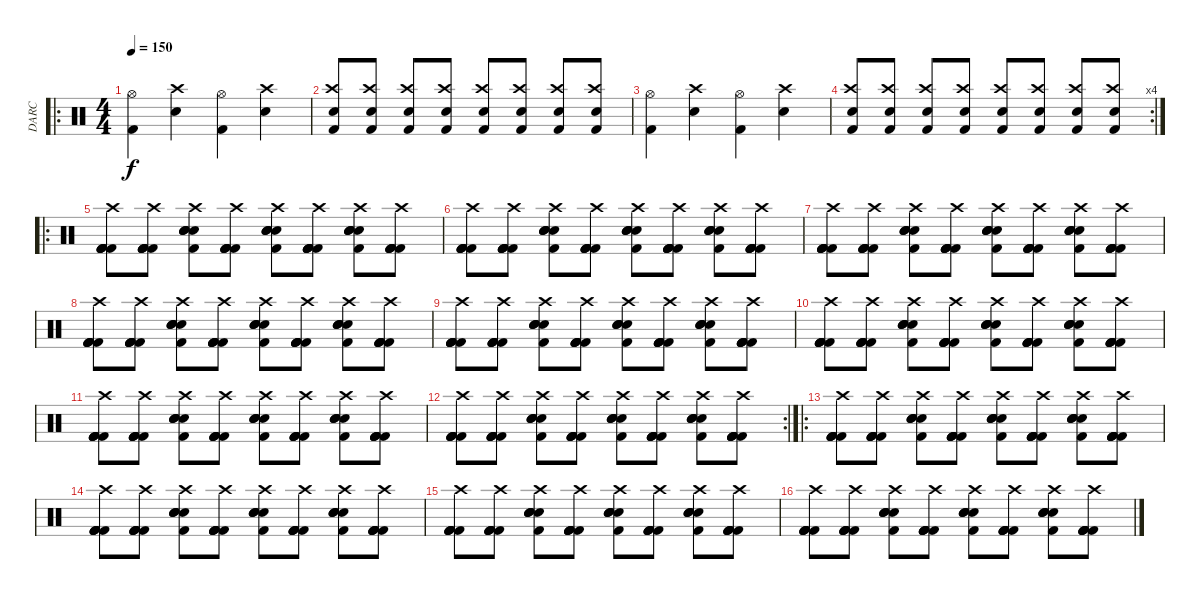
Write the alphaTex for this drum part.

\track ("DARC" "DARC") {instrument percussion}
\staff {score}
\articulation defaults
\ro
\ts (4 4)
\tempo 150
\clef neutral
\ks c
("Hi-Hat (open)" "Kick (hit) 2").4{dy f} ("Crash high (hit)" "Electric Snare (hit)").4 ("Hi-Hat (open)" "Kick (hit) 2").4 ("Crash high (hit)" "Electric Snare (hit)").4 |
("Crash high (hit)" "Kick (hit) 2" "Electric Snare (hit)").8 ("Crash high (hit)" "Kick (hit) 2" "Electric Snare (hit)").8 ("Crash high (hit)" "Kick (hit) 2" "Electric Snare (hit)").8 ("Crash high (hit)" "Kick (hit) 2" "Electric Snare (hit)").8 ("Crash high (hit)" "Kick (hit) 2" "Electric Snare (hit)").8 ("Crash high (hit)" "Kick (hit) 2" "Electric Snare (hit)").8 ("Crash high (hit)" "Kick (hit) 2" "Electric Snare (hit)").8 ("Crash high (hit)" "Kick (hit) 2" "Electric Snare (hit)").8 |
("Hi-Hat (open)" "Kick (hit) 2").4 ("Crash high (hit)" "Electric Snare (hit)").4 ("Hi-Hat (open)" "Kick (hit) 2").4 ("Crash high (hit)" "Electric Snare (hit)").4 |
\rc 4
("Crash high (hit)" "Kick (hit) 2" "Electric Snare (hit)").8 ("Crash high (hit)" "Kick (hit) 2" "Electric Snare (hit)").8 ("Crash high (hit)" "Kick (hit) 2" "Electric Snare (hit)").8 ("Crash high (hit)" "Kick (hit) 2" "Electric Snare (hit)").8 ("Crash high (hit)" "Kick (hit) 2" "Electric Snare (hit)").8 ("Crash high (hit)" "Kick (hit) 2" "Electric Snare (hit)").8 ("Crash high (hit)" "Kick (hit) 2" "Electric Snare (hit)").8 ("Crash high (hit)" "Kick (hit) 2" "Electric Snare (hit)").8 |
\ro
("Kick (hit) 2" "Kick (hit) 2" "Kick (hit) 2" "Kick (hit) 2" "Crash high (hit)" "Kick (hit) 2").8 ("Kick (hit) 2" "Kick (hit) 2" "Kick (hit) 2" "Kick (hit) 2" "Crash high (hit)" "Kick (hit) 2").8 ("Kick (hit) 2" "Electric Snare (hit)" "Electric Snare (hit)" "Electric Snare (hit)" "Crash high (hit)" "Electric Snare (hit)").8 ("Kick (hit) 2" "Kick (hit) 2" "Kick (hit) 2" "Kick (hit) 2" "Crash high (hit)" "Kick (hit) 2").8 ("Kick (hit) 2" "Electric Snare (hit)" "Electric Snare (hit)" "Electric Snare (hit)" "Crash high (hit)" "Electric Snare (hit)").8 ("Kick (hit) 2" "Kick (hit) 2" "Kick (hit) 2" "Kick (hit) 2" "Crash high (hit)" "Kick (hit) 2").8 ("Kick (hit) 2" "Electric Snare (hit)" "Electric Snare (hit)" "Electric Snare (hit)" "Crash high (hit)" "Electric Snare (hit)").8 ("Kick (hit) 2" "Kick (hit) 2" "Kick (hit) 2" "Kick (hit) 2" "Crash high (hit)" "Kick (hit) 2").8 |
("Kick (hit) 2" "Kick (hit) 2" "Kick (hit) 2" "Kick (hit) 2" "Crash high (hit)" "Kick (hit) 2").8 ("Kick (hit) 2" "Kick (hit) 2" "Kick (hit) 2" "Kick (hit) 2" "Crash high (hit)" "Kick (hit) 2").8 ("Kick (hit) 2" "Electric Snare (hit)" "Electric Snare (hit)" "Electric Snare (hit)" "Crash high (hit)" "Electric Snare (hit)").8 ("Kick (hit) 2" "Kick (hit) 2" "Kick (hit) 2" "Kick (hit) 2" "Crash high (hit)" "Kick (hit) 2").8 ("Kick (hit) 2" "Electric Snare (hit)" "Electric Snare (hit)" "Electric Snare (hit)" "Crash high (hit)" "Electric Snare (hit)").8 ("Kick (hit) 2" "Kick (hit) 2" "Kick (hit) 2" "Kick (hit) 2" "Crash high (hit)" "Kick (hit) 2").8 ("Kick (hit) 2" "Electric Snare (hit)" "Electric Snare (hit)" "Electric Snare (hit)" "Crash high (hit)" "Electric Snare (hit)").8 ("Kick (hit) 2" "Kick (hit) 2" "Kick (hit) 2" "Kick (hit) 2" "Crash high (hit)" "Kick (hit) 2").8 |
("Kick (hit) 2" "Kick (hit) 2" "Kick (hit) 2" "Kick (hit) 2" "Crash high (hit)" "Kick (hit) 2").8 ("Kick (hit) 2" "Kick (hit) 2" "Kick (hit) 2" "Kick (hit) 2" "Crash high (hit)" "Kick (hit) 2").8 ("Kick (hit) 2" "Electric Snare (hit)" "Electric Snare (hit)" "Electric Snare (hit)" "Crash high (hit)" "Electric Snare (hit)").8 ("Kick (hit) 2" "Kick (hit) 2" "Kick (hit) 2" "Kick (hit) 2" "Crash high (hit)" "Kick (hit) 2").8 ("Kick (hit) 2" "Electric Snare (hit)" "Electric Snare (hit)" "Electric Snare (hit)" "Crash high (hit)" "Electric Snare (hit)").8 ("Kick (hit) 2" "Kick (hit) 2" "Kick (hit) 2" "Kick (hit) 2" "Crash high (hit)" "Kick (hit) 2").8 ("Kick (hit) 2" "Electric Snare (hit)" "Electric Snare (hit)" "Electric Snare (hit)" "Crash high (hit)" "Electric Snare (hit)").8 ("Kick (hit) 2" "Kick (hit) 2" "Kick (hit) 2" "Kick (hit) 2" "Crash high (hit)" "Kick (hit) 2").8 |
("Kick (hit) 2" "Kick (hit) 2" "Kick (hit) 2" "Kick (hit) 2" "Crash high (hit)" "Kick (hit) 2").8 ("Kick (hit) 2" "Kick (hit) 2" "Kick (hit) 2" "Kick (hit) 2" "Crash high (hit)" "Kick (hit) 2").8 ("Kick (hit) 2" "Electric Snare (hit)" "Electric Snare (hit)" "Electric Snare (hit)" "Crash high (hit)" "Electric Snare (hit)").8 ("Kick (hit) 2" "Kick (hit) 2" "Kick (hit) 2" "Kick (hit) 2" "Crash high (hit)" "Kick (hit) 2").8 ("Kick (hit) 2" "Electric Snare (hit)" "Electric Snare (hit)" "Electric Snare (hit)" "Crash high (hit)" "Electric Snare (hit)").8 ("Kick (hit) 2" "Kick (hit) 2" "Kick (hit) 2" "Kick (hit) 2" "Crash high (hit)" "Kick (hit) 2").8 ("Kick (hit) 2" "Electric Snare (hit)" "Electric Snare (hit)" "Electric Snare (hit)" "Crash high (hit)" "Electric Snare (hit)").8 ("Kick (hit) 2" "Kick (hit) 2" "Kick (hit) 2" "Kick (hit) 2" "Crash high (hit)" "Kick (hit) 2").8 |
("Kick (hit) 2" "Kick (hit) 2" "Kick (hit) 2" "Kick (hit) 2" "Crash high (hit)" "Kick (hit) 2").8 ("Kick (hit) 2" "Kick (hit) 2" "Kick (hit) 2" "Kick (hit) 2" "Crash high (hit)" "Kick (hit) 2").8 ("Kick (hit) 2" "Electric Snare (hit)" "Electric Snare (hit)" "Electric Snare (hit)" "Crash high (hit)" "Electric Snare (hit)").8 ("Kick (hit) 2" "Kick (hit) 2" "Kick (hit) 2" "Kick (hit) 2" "Crash high (hit)" "Kick (hit) 2").8 ("Kick (hit) 2" "Electric Snare (hit)" "Electric Snare (hit)" "Electric Snare (hit)" "Crash high (hit)" "Electric Snare (hit)").8 ("Kick (hit) 2" "Kick (hit) 2" "Kick (hit) 2" "Kick (hit) 2" "Crash high (hit)" "Kick (hit) 2").8 ("Kick (hit) 2" "Electric Snare (hit)" "Electric Snare (hit)" "Electric Snare (hit)" "Crash high (hit)" "Electric Snare (hit)").8 ("Kick (hit) 2" "Kick (hit) 2" "Kick (hit) 2" "Kick (hit) 2" "Crash high (hit)" "Kick (hit) 2").8 |
("Kick (hit) 2" "Kick (hit) 2" "Kick (hit) 2" "Kick (hit) 2" "Crash high (hit)" "Kick (hit) 2").8 ("Kick (hit) 2" "Kick (hit) 2" "Kick (hit) 2" "Kick (hit) 2" "Crash high (hit)" "Kick (hit) 2").8 ("Kick (hit) 2" "Electric Snare (hit)" "Electric Snare (hit)" "Electric Snare (hit)" "Crash high (hit)" "Electric Snare (hit)").8 ("Kick (hit) 2" "Kick (hit) 2" "Kick (hit) 2" "Kick (hit) 2" "Crash high (hit)" "Kick (hit) 2").8 ("Kick (hit) 2" "Electric Snare (hit)" "Electric Snare (hit)" "Electric Snare (hit)" "Crash high (hit)" "Electric Snare (hit)").8 ("Kick (hit) 2" "Kick (hit) 2" "Kick (hit) 2" "Kick (hit) 2" "Crash high (hit)" "Kick (hit) 2").8 ("Kick (hit) 2" "Electric Snare (hit)" "Electric Snare (hit)" "Electric Snare (hit)" "Crash high (hit)" "Electric Snare (hit)").8 ("Kick (hit) 2" "Kick (hit) 2" "Kick (hit) 2" "Kick (hit) 2" "Crash high (hit)" "Kick (hit) 2").8 |
("Kick (hit) 2" "Kick (hit) 2" "Kick (hit) 2" "Kick (hit) 2" "Crash high (hit)" "Kick (hit) 2").8 ("Kick (hit) 2" "Kick (hit) 2" "Kick (hit) 2" "Kick (hit) 2" "Crash high (hit)" "Kick (hit) 2").8 ("Kick (hit) 2" "Electric Snare (hit)" "Electric Snare (hit)" "Electric Snare (hit)" "Crash high (hit)" "Electric Snare (hit)").8 ("Kick (hit) 2" "Kick (hit) 2" "Kick (hit) 2" "Kick (hit) 2" "Crash high (hit)" "Kick (hit) 2").8 ("Kick (hit) 2" "Electric Snare (hit)" "Electric Snare (hit)" "Electric Snare (hit)" "Crash high (hit)" "Electric Snare (hit)").8 ("Kick (hit) 2" "Kick (hit) 2" "Kick (hit) 2" "Kick (hit) 2" "Crash high (hit)" "Kick (hit) 2").8 ("Kick (hit) 2" "Electric Snare (hit)" "Electric Snare (hit)" "Electric Snare (hit)" "Crash high (hit)" "Electric Snare (hit)").8 ("Kick (hit) 2" "Kick (hit) 2" "Kick (hit) 2" "Kick (hit) 2" "Crash high (hit)" "Kick (hit) 2").8 |
\rc 2
("Kick (hit) 2" "Kick (hit) 2" "Kick (hit) 2" "Kick (hit) 2" "Crash high (hit)" "Kick (hit) 2").8 ("Kick (hit) 2" "Kick (hit) 2" "Kick (hit) 2" "Kick (hit) 2" "Crash high (hit)" "Kick (hit) 2").8 ("Kick (hit) 2" "Electric Snare (hit)" "Electric Snare (hit)" "Electric Snare (hit)" "Crash high (hit)" "Electric Snare (hit)").8 ("Kick (hit) 2" "Kick (hit) 2" "Kick (hit) 2" "Kick (hit) 2" "Crash high (hit)" "Kick (hit) 2").8 ("Kick (hit) 2" "Electric Snare (hit)" "Electric Snare (hit)" "Electric Snare (hit)" "Crash high (hit)" "Electric Snare (hit)").8 ("Kick (hit) 2" "Kick (hit) 2" "Kick (hit) 2" "Kick (hit) 2" "Crash high (hit)" "Kick (hit) 2").8 ("Kick (hit) 2" "Electric Snare (hit)" "Electric Snare (hit)" "Electric Snare (hit)" "Crash high (hit)" "Electric Snare (hit)").8 ("Kick (hit) 2" "Kick (hit) 2" "Kick (hit) 2" "Kick (hit) 2" "Crash high (hit)" "Kick (hit) 2").8 |
\ro
("Kick (hit) 2" "Kick (hit) 2" "Kick (hit) 2" "Kick (hit) 2" "Crash high (hit)" "Kick (hit) 2").8 ("Kick (hit) 2" "Kick (hit) 2" "Kick (hit) 2" "Kick (hit) 2" "Crash high (hit)" "Kick (hit) 2").8 ("Kick (hit) 2" "Electric Snare (hit)" "Electric Snare (hit)" "Electric Snare (hit)" "Crash high (hit)" "Electric Snare (hit)").8 ("Kick (hit) 2" "Kick (hit) 2" "Kick (hit) 2" "Kick (hit) 2" "Crash high (hit)" "Kick (hit) 2").8 ("Kick (hit) 2" "Electric Snare (hit)" "Electric Snare (hit)" "Electric Snare (hit)" "Crash high (hit)" "Electric Snare (hit)").8 ("Kick (hit) 2" "Kick (hit) 2" "Kick (hit) 2" "Kick (hit) 2" "Crash high (hit)" "Kick (hit) 2").8 ("Kick (hit) 2" "Electric Snare (hit)" "Electric Snare (hit)" "Electric Snare (hit)" "Crash high (hit)" "Electric Snare (hit)").8 ("Kick (hit) 2" "Kick (hit) 2" "Kick (hit) 2" "Kick (hit) 2" "Crash high (hit)" "Kick (hit) 2").8 |
("Kick (hit) 2" "Kick (hit) 2" "Kick (hit) 2" "Kick (hit) 2" "Crash high (hit)" "Kick (hit) 2").8 ("Kick (hit) 2" "Kick (hit) 2" "Kick (hit) 2" "Kick (hit) 2" "Crash high (hit)" "Kick (hit) 2").8 ("Kick (hit) 2" "Electric Snare (hit)" "Electric Snare (hit)" "Electric Snare (hit)" "Crash high (hit)" "Electric Snare (hit)").8 ("Kick (hit) 2" "Kick (hit) 2" "Kick (hit) 2" "Kick (hit) 2" "Crash high (hit)" "Kick (hit) 2").8 ("Kick (hit) 2" "Electric Snare (hit)" "Electric Snare (hit)" "Electric Snare (hit)" "Crash high (hit)" "Electric Snare (hit)").8 ("Kick (hit) 2" "Kick (hit) 2" "Kick (hit) 2" "Kick (hit) 2" "Crash high (hit)" "Kick (hit) 2").8 ("Kick (hit) 2" "Electric Snare (hit)" "Electric Snare (hit)" "Electric Snare (hit)" "Crash high (hit)" "Electric Snare (hit)").8 ("Kick (hit) 2" "Kick (hit) 2" "Kick (hit) 2" "Kick (hit) 2" "Crash high (hit)" "Kick (hit) 2").8 |
("Kick (hit) 2" "Kick (hit) 2" "Kick (hit) 2" "Kick (hit) 2" "Crash high (hit)" "Kick (hit) 2").8 ("Kick (hit) 2" "Kick (hit) 2" "Kick (hit) 2" "Kick (hit) 2" "Crash high (hit)" "Kick (hit) 2").8 ("Kick (hit) 2" "Electric Snare (hit)" "Electric Snare (hit)" "Electric Snare (hit)" "Crash high (hit)" "Electric Snare (hit)").8 ("Kick (hit) 2" "Kick (hit) 2" "Kick (hit) 2" "Kick (hit) 2" "Crash high (hit)" "Kick (hit) 2").8 ("Kick (hit) 2" "Electric Snare (hit)" "Electric Snare (hit)" "Electric Snare (hit)" "Crash high (hit)" "Electric Snare (hit)").8 ("Kick (hit) 2" "Kick (hit) 2" "Kick (hit) 2" "Kick (hit) 2" "Crash high (hit)" "Kick (hit) 2").8 ("Kick (hit) 2" "Electric Snare (hit)" "Electric Snare (hit)" "Electric Snare (hit)" "Crash high (hit)" "Electric Snare (hit)").8 ("Kick (hit) 2" "Kick (hit) 2" "Kick (hit) 2" "Kick (hit) 2" "Crash high (hit)" "Kick (hit) 2").8 |
("Kick (hit) 2" "Kick (hit) 2" "Kick (hit) 2" "Kick (hit) 2" "Crash high (hit)" "Kick (hit) 2").8 ("Kick (hit) 2" "Kick (hit) 2" "Kick (hit) 2" "Kick (hit) 2" "Crash high (hit)" "Kick (hit) 2").8 ("Kick (hit) 2" "Electric Snare (hit)" "Electric Snare (hit)" "Electric Snare (hit)" "Crash high (hit)" "Electric Snare (hit)").8 ("Kick (hit) 2" "Kick (hit) 2" "Kick (hit) 2" "Kick (hit) 2" "Crash high (hit)" "Kick (hit) 2").8 ("Kick (hit) 2" "Electric Snare (hit)" "Electric Snare (hit)" "Electric Snare (hit)" "Crash high (hit)" "Electric Snare (hit)").8 ("Kick (hit) 2" "Kick (hit) 2" "Kick (hit) 2" "Kick (hit) 2" "Crash high (hit)" "Kick (hit) 2").8 ("Kick (hit) 2" "Electric Snare (hit)" "Electric Snare (hit)" "Electric Snare (hit)" "Crash high (hit)" "Electric Snare (hit)").8 ("Kick (hit) 2" "Kick (hit) 2" "Kick (hit) 2" "Kick (hit) 2" "Crash high (hit)" "Kick (hit) 2").8
